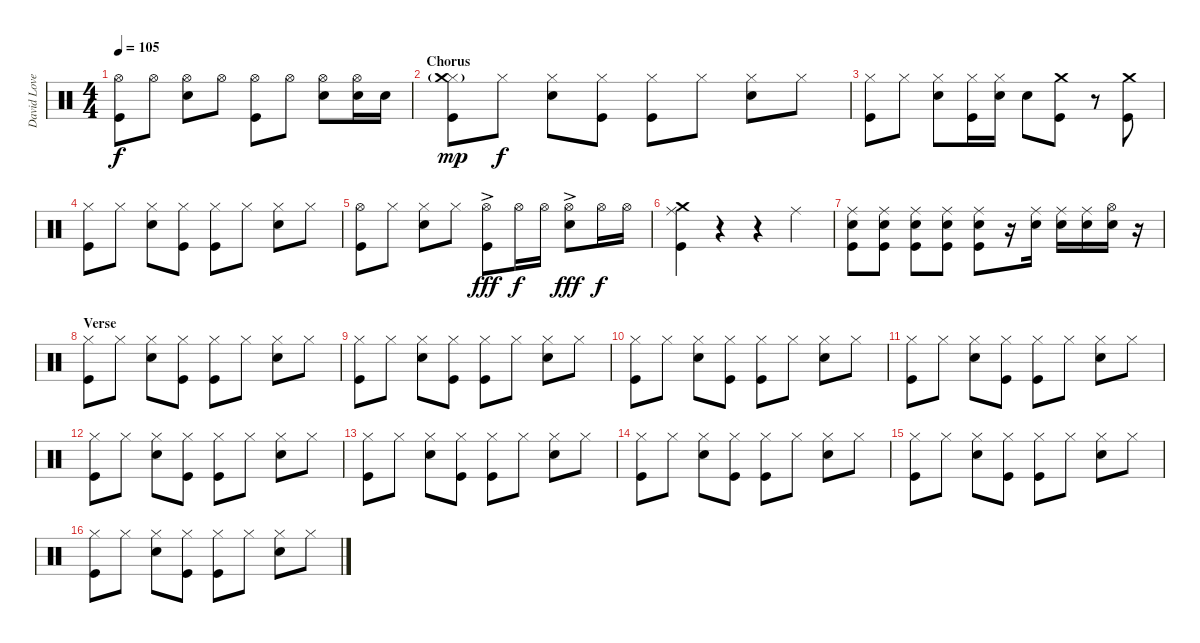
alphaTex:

\track ("David Lovering" "David Love") {instrument percussion}
\staff {score}
\articulation defaults
\ts (4 4)
\tempo 105
\clef neutral
\ks c
("Hi-Hat (open)" "Kick (hit)").8{dy f} "Hi-Hat (open)".8 ("Hi-Hat (open)" "Snare (hit) 2").8 "Hi-Hat (open)".8 ("Hi-Hat (open)" "Kick (hit)").8 "Hi-Hat (open)".8 ("Hi-Hat (open)" "Snare (hit) 2").8 ("Hi-Hat (open)" "Snare (hit) 2").16 "Snare (hit) 2".16 |
\section ("" "Chorus")
("Hi-Hat (closed)" "Crash medium (hit)"{g} "Kick (hit)").8{dy mp} "Hi-Hat (closed)".8{dy f} ("Hi-Hat (closed)" "Snare (hit) 2").8 ("Hi-Hat (closed)" "Kick (hit)").8 ("Hi-Hat (closed)" "Kick (hit)").8 "Hi-Hat (closed)".8 ("Hi-Hat (closed)" "Snare (hit) 2").8 "Hi-Hat (closed)".8 |
("Hi-Hat (closed)" "Kick (hit)").8 "Hi-Hat (closed)".8 ("Hi-Hat (closed)" "Snare (hit) 2").8 ("Hi-Hat (closed)" "Kick (hit)").16 ("Hi-Hat (closed)" "Snare (hit) 2").16 "Snare (hit) 2".8 ("Crash medium (hit)" "Kick (hit)").8 r.8 ("Crash medium (hit)" "Kick (hit)").8 |
("Hi-Hat (closed)" "Kick (hit)").8 "Hi-Hat (closed)".8 ("Hi-Hat (closed)" "Snare (hit) 2").8 ("Hi-Hat (closed)" "Kick (hit)").8 ("Hi-Hat (closed)" "Kick (hit)").8 "Hi-Hat (closed)".8 ("Hi-Hat (closed)" "Snare (hit) 2").8 "Hi-Hat (closed)".8 |
("Hi-Hat (open)" "Kick (hit)").8 "Hi-Hat (closed)".8 ("Hi-Hat (closed)" "Snare (hit) 2").8 "Hi-Hat (closed)".8 ("Hi-Hat (open)" "Kick (hit)"{ac}).8{dy fff} "Hi-Hat (open)".16{dy f} "Hi-Hat (open)".16 ("Hi-Hat (open)" "Snare (hit) 2"{ac}).8{dy fff} "Hi-Hat (open)".16{dy f} "Hi-Hat (open)".16 |
("Ride (middle)" "Crash medium (hit)" "Kick (hit)").4 r.4 r.4 "Ride (middle)".4 |
("Ride (middle)" "Snare (hit) 2" "Kick (hit)").8{volume 9} ("Ride (middle)" "Snare (hit) 2" "Kick (hit)").8 ("Ride (middle)" "Snare (hit) 2" "Kick (hit)").8{volume 13} ("Ride (middle)" "Snare (hit) 2" "Kick (hit)").8 ("Ride (middle)" "Snare (hit) 2" "Kick (hit)").8 r.16 ("Ride (middle)" "Snare (hit) 2").16 ("Ride (middle)" "Snare (hit) 2").16 ("Ride (middle)" "Snare (hit) 2").16 ("Hi-Hat (open)" "Snare (hit) 2").16 r.16 |
\section ("" "Verse")
("Hi-Hat (closed)" "Kick (hit)").8 "Hi-Hat (closed)".8 ("Hi-Hat (closed)" "Snare (hit) 2").8 ("Hi-Hat (closed)" "Kick (hit)").8 ("Hi-Hat (closed)" "Kick (hit)").8 "Hi-Hat (closed)".8 ("Hi-Hat (closed)" "Snare (hit) 2").8 "Hi-Hat (closed)".8 |
("Hi-Hat (closed)" "Kick (hit)").8 "Hi-Hat (closed)".8 ("Hi-Hat (closed)" "Snare (hit) 2").8 ("Hi-Hat (closed)" "Kick (hit)").8 ("Hi-Hat (closed)" "Kick (hit)").8 "Hi-Hat (closed)".8 ("Hi-Hat (closed)" "Snare (hit) 2").8 "Hi-Hat (closed)".8 |
("Hi-Hat (closed)" "Kick (hit)").8 "Hi-Hat (closed)".8 ("Hi-Hat (closed)" "Snare (hit) 2").8 ("Hi-Hat (closed)" "Kick (hit)").8 ("Hi-Hat (closed)" "Kick (hit)").8 "Hi-Hat (closed)".8 ("Hi-Hat (closed)" "Snare (hit) 2").8 "Hi-Hat (closed)".8 |
("Hi-Hat (closed)" "Kick (hit)").8 "Hi-Hat (closed)".8 ("Hi-Hat (closed)" "Snare (hit) 2").8 ("Hi-Hat (closed)" "Kick (hit)").8 ("Hi-Hat (closed)" "Kick (hit)").8 "Hi-Hat (closed)".8 ("Hi-Hat (closed)" "Snare (hit) 2").8 "Hi-Hat (closed)".8 |
("Hi-Hat (closed)" "Kick (hit)").8 "Hi-Hat (closed)".8 ("Hi-Hat (closed)" "Snare (hit) 2").8 ("Hi-Hat (closed)" "Kick (hit)").8 ("Hi-Hat (closed)" "Kick (hit)").8 "Hi-Hat (closed)".8 ("Hi-Hat (closed)" "Snare (hit) 2").8 "Hi-Hat (closed)".8 |
("Hi-Hat (closed)" "Kick (hit)").8 "Hi-Hat (closed)".8 ("Hi-Hat (closed)" "Snare (hit) 2").8 ("Hi-Hat (closed)" "Kick (hit)").8 ("Hi-Hat (closed)" "Kick (hit)").8 "Hi-Hat (closed)".8 ("Hi-Hat (closed)" "Snare (hit) 2").8 "Hi-Hat (closed)".8 |
("Hi-Hat (closed)" "Kick (hit)").8 "Hi-Hat (closed)".8 ("Hi-Hat (closed)" "Snare (hit) 2").8 ("Hi-Hat (closed)" "Kick (hit)").8 ("Hi-Hat (closed)" "Kick (hit)").8 "Hi-Hat (closed)".8 ("Hi-Hat (closed)" "Snare (hit) 2").8 "Hi-Hat (closed)".8 |
("Hi-Hat (closed)" "Kick (hit)").8 "Hi-Hat (closed)".8 ("Hi-Hat (closed)" "Snare (hit) 2").8 ("Hi-Hat (closed)" "Kick (hit)").8 ("Hi-Hat (closed)" "Kick (hit)").8 "Hi-Hat (closed)".8 ("Hi-Hat (closed)" "Snare (hit) 2").8 "Hi-Hat (closed)".8 |
("Hi-Hat (closed)" "Kick (hit)").8 "Hi-Hat (closed)".8 ("Hi-Hat (closed)" "Snare (hit) 2").8 ("Hi-Hat (closed)" "Kick (hit)").8 ("Hi-Hat (closed)" "Kick (hit)").8 "Hi-Hat (closed)".8 ("Hi-Hat (closed)" "Snare (hit) 2").8 "Hi-Hat (closed)".8
